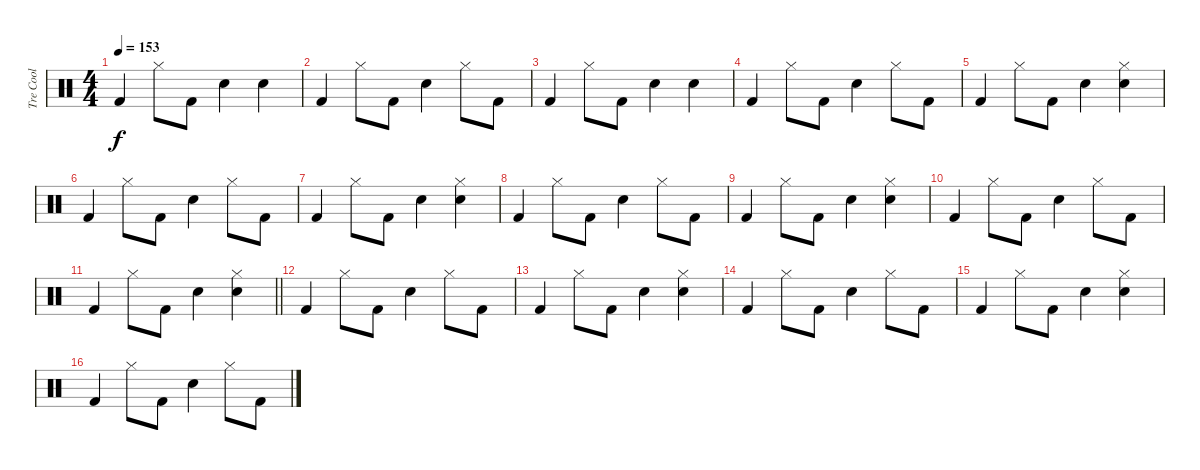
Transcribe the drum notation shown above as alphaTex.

\track ("Tre Cool" "Tre Cool") {instrument percussion}
\staff {score}
\articulation defaults
\ts (4 4)
\tempo 153
\clef neutral
\ks c "Kick (hit) 2".4{dy f} "Hi-Hat (closed)".8 "Kick (hit) 2".8 "Snare (hit) 2".4 "Snare (hit) 2".4
|
"Kick (hit) 2".4 "Hi-Hat (closed)".8 "Kick (hit) 2".8 "Snare (hit) 2".4 "Hi-Hat (closed)".8 "Kick (hit) 2".8 |
"Kick (hit) 2".4 "Hi-Hat (closed)".8 "Kick (hit) 2".8 "Snare (hit) 2".4 "Snare (hit) 2".4 |
"Kick (hit) 2".4 "Hi-Hat (closed)".8 "Kick (hit) 2".8 "Snare (hit) 2".4 "Hi-Hat (closed)".8 "Kick (hit) 2".8 |
"Kick (hit) 2".4 "Hi-Hat (closed)".8 "Kick (hit) 2".8 "Snare (hit) 2".4 ("Snare (hit) 2" "Hi-Hat (closed)").4 |
"Kick (hit) 2".4 "Hi-Hat (closed)".8 "Kick (hit) 2".8 "Snare (hit) 2".4 "Hi-Hat (closed)".8 "Kick (hit) 2".8 |
"Kick (hit) 2".4 "Hi-Hat (closed)".8 "Kick (hit) 2".8 "Snare (hit) 2".4 ("Snare (hit) 2" "Hi-Hat (closed)").4 |
"Kick (hit) 2".4 "Hi-Hat (closed)".8 "Kick (hit) 2".8 "Snare (hit) 2".4 "Hi-Hat (closed)".8 "Kick (hit) 2".8 |
"Kick (hit) 2".4 "Hi-Hat (closed)".8 "Kick (hit) 2".8 "Snare (hit) 2".4 ("Snare (hit) 2" "Hi-Hat (closed)").4 |
"Kick (hit) 2".4 "Hi-Hat (closed)".8 "Kick (hit) 2".8 "Snare (hit) 2".4 "Hi-Hat (closed)".8 "Kick (hit) 2".8 |
\barLineRight lightlight "Kick (hit) 2".4 "Hi-Hat (closed)".8 "Kick (hit) 2".8 "Snare (hit) 2".4
("Snare (hit) 2" "Hi-Hat (closed)").4 |
"Kick (hit) 2".4 "Hi-Hat (closed)".8 "Kick (hit) 2".8 "Snare (hit) 2".4 "Hi-Hat (closed)".8 "Kick (hit) 2".8 |
"Kick (hit) 2".4 "Hi-Hat (closed)".8 "Kick (hit) 2".8 "Snare (hit) 2".4 ("Snare (hit) 2" "Hi-Hat (closed)").4 |
"Kick (hit) 2".4 "Hi-Hat (closed)".8 "Kick (hit) 2".8 "Snare (hit) 2".4 "Hi-Hat (closed)".8 "Kick (hit) 2".8 |
"Kick (hit) 2".4 "Hi-Hat (closed)".8 "Kick (hit) 2".8 "Snare (hit) 2".4 ("Snare (hit) 2" "Hi-Hat (closed)").4 |
"Kick (hit) 2".4 "Hi-Hat (closed)".8 "Kick (hit) 2".8 "Snare (hit) 2".4 "Hi-Hat (closed)".8 "Kick (hit) 2".8
